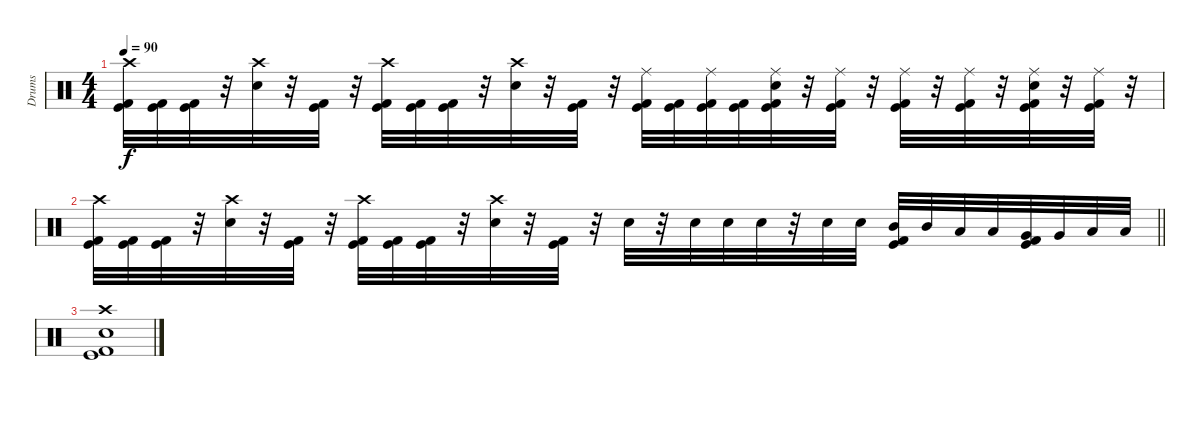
\track ("Drums" "Drums") {instrument percussion}
\staff {score}
\articulation defaults
\ts (4 4)
\tempo 90
\clef neutral
\ks c
("Crash high (hit)" "Kick (hit)" "Kick (hit) 2").32{dy f} ("Kick (hit)" "Kick (hit) 2").32 ("Kick (hit)" "Kick (hit) 2").32 r.32 ("Crash high (hit)" "Electric Snare (hit)").32 r.32 ("Kick (hit)" "Kick (hit) 2").32 r.32 ("Crash high (hit)" "Kick (hit)" "Kick (hit) 2").32 ("Kick (hit)" "Kick (hit) 2").32 ("Kick (hit)" "Kick (hit) 2").32 r.32 ("Crash high (hit)" "Electric Snare (hit)").32 r.32 ("Kick (hit)" "Kick (hit) 2").32 r.32 ("Ride (middle)" "Kick (hit)" "Kick (hit) 2").32 ("Kick (hit)" "Kick (hit) 2").32 ("Ride (middle)" "Kick (hit)" "Kick (hit) 2").32 ("Kick (hit)" "Kick (hit) 2").32 ("Ride (middle)" "Electric Snare (hit)" "Kick (hit)" "Kick (hit) 2").32 r.32 ("Ride (middle)" "Kick (hit)" "Kick (hit) 2").32 r.32 ("Ride (middle)" "Kick (hit)" "Kick (hit) 2").32 r.32 ("Ride (middle)" "Kick (hit)" "Kick (hit) 2").32 r.32 ("Ride (middle)" "Electric Snare (hit)" "Kick (hit)" "Kick (hit) 2").32 r.32 ("Ride (middle)" "Kick (hit)" "Kick (hit) 2").32 r.32 |
\barLineRight lightlight
("Crash high (hit)" "Kick (hit)" "Kick (hit) 2").32 ("Kick (hit)" "Kick (hit) 2").32 ("Kick (hit)" "Kick (hit) 2").32 r.32 ("Crash high (hit)" "Electric Snare (hit)").32 r.32 ("Kick (hit)" "Kick (hit) 2").32 r.32 ("Crash high (hit)" "Kick (hit)" "Kick (hit) 2").32 ("Kick (hit)" "Kick (hit) 2").32 ("Kick (hit)" "Kick (hit) 2").32 r.32 ("Crash high (hit)" "Electric Snare (hit)").32 r.32 ("Kick (hit)" "Kick (hit) 2").32 r.32 "Electric Snare (hit)".32 r.32 "Electric Snare (hit)".32 "Electric Snare (hit)".32 "Electric Snare (hit)".32 r.32 "Electric Snare (hit)".32 "Electric Snare (hit)".32 ("Mid Tom (hit)" "Kick (hit)" "Kick (hit) 2").32 "Mid Tom (hit)".32 "Low Tom (hit)".32 "Low Tom (hit)".32 ("Very Low Tom (hit)" "Kick (hit)" "Kick (hit) 2").32 "Very Low Tom (hit)".32 "Low Floor Tom (hit)".32 "Low Floor Tom (hit)".32 |
("Crash high (hit)" "Electric Snare (hit)" "Kick (hit)" "Kick (hit) 2").1
